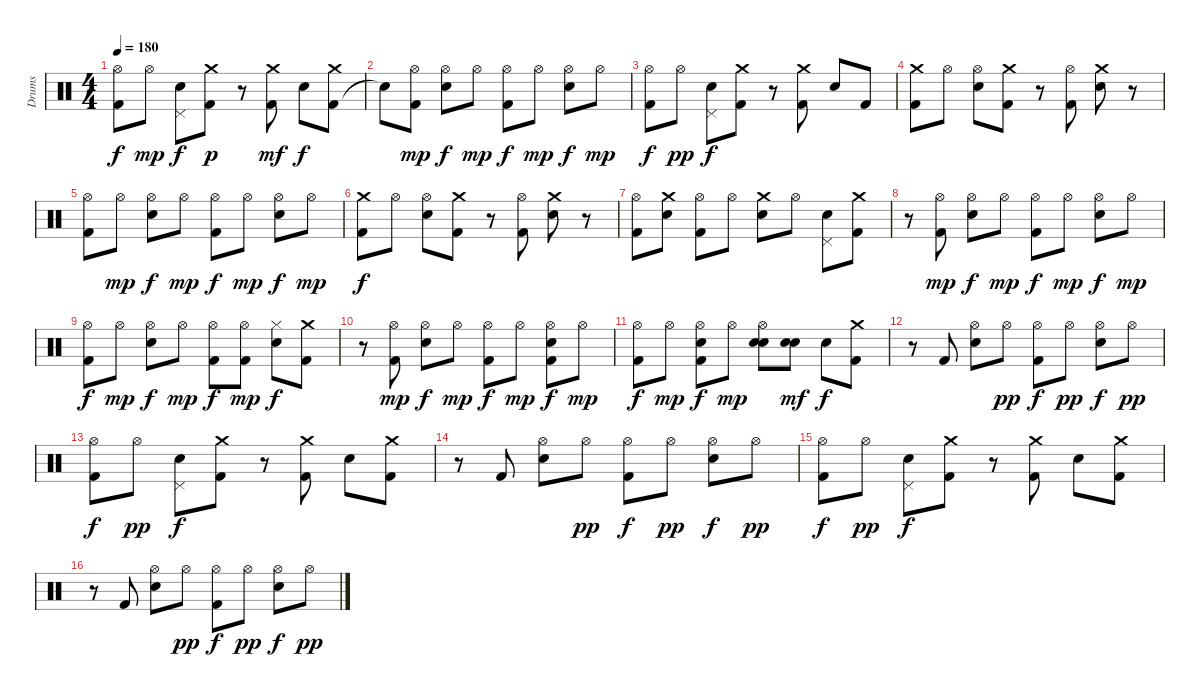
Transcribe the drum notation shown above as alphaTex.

\track ("Drums" "Drums") {instrument percussion}
\staff {score}
\articulation defaults
\ts (4 4)
\tempo 180
\clef neutral
\ks c
("Hi-Hat (open)" "Kick (hit) 2").8{dy f} "Hi-Hat (open)".8{dy mp} ("Pedal Hi-Hat (hit)" "Electric Snare (hit)").8{dy f} ("Crash medium (hit)" "Kick (hit) 2").8{dy p} r.8 ("Crash medium (hit)" "Kick (hit) 2").8{dy mf} "Electric Snare (hit)".8{dy f} ("Kick (hit) 2" "Crash medium (hit)").8 |
"Snare (hit)"{t}.8 ("Hi-Hat (open)" "Kick (hit) 2").8{dy mp} ("Hi-Hat (open)" "Electric Snare (hit)").8{dy f} "Hi-Hat (open)".8{dy mp} ("Hi-Hat (open)" "Kick (hit) 2").8{dy f} "Hi-Hat (open)".8{dy mp} ("Hi-Hat (open)" "Electric Snare (hit)").8{dy f} "Hi-Hat (open)".8{dy mp} |
("Hi-Hat (open)" "Kick (hit) 2").8{dy f} "Hi-Hat (open)".8{dy pp} ("Pedal Hi-Hat (hit)" "Electric Snare (hit)").8{dy f} ("Crash medium (hit)" "Kick (hit) 2").8 r.8 ("Crash medium (hit)" "Kick (hit) 2").8 "Electric Snare (hit)".8 "Kick (hit) 2".8 |
("Crash medium (hit)" "Kick (hit) 2").8 "Hi-Hat (open)".8 ("Hi-Hat (open)" "Electric Snare (hit)").8 ("Kick (hit) 2" "Crash medium (hit)").8 r.8 ("Hi-Hat (open)" "Kick (hit) 2").8 ("Crash medium (hit)" "Electric Snare (hit)").8 r.8 |
("Hi-Hat (open)" "Kick (hit) 2").8 "Hi-Hat (open)".8{dy mp} ("Hi-Hat (open)" "Electric Snare (hit)").8{dy f} "Hi-Hat (open)".8{dy mp} ("Hi-Hat (open)" "Kick (hit) 2").8{dy f} "Hi-Hat (open)".8{dy mp} ("Hi-Hat (open)" "Electric Snare (hit)").8{dy f} "Hi-Hat (open)".8{dy mp} |
("Crash medium (hit)" "Kick (hit) 2").8{dy f} "Hi-Hat (open)".8 ("Hi-Hat (open)" "Electric Snare (hit)").8 ("Kick (hit) 2" "Crash medium (hit)").8 r.8 ("Hi-Hat (open)" "Kick (hit) 2").8 ("Electric Snare (hit)" "Crash medium (hit)").8 r.8 |
("Hi-Hat (open)" "Kick (hit) 2").8 ("Crash medium (hit)" "Electric Snare (hit)").8 ("Hi-Hat (open)" "Kick (hit) 2").8 "Hi-Hat (open)".8 ("Crash medium (hit)" "Electric Snare (hit)").8 "Hi-Hat (open)".8 ("Pedal Hi-Hat (hit)" "Electric Snare (hit)").8 ("Kick (hit) 2" "Crash medium (hit)").8 |
r.8 ("Hi-Hat (open)" "Kick (hit) 2").8{dy mp} ("Hi-Hat (open)" "Electric Snare (hit)").8{dy f} "Hi-Hat (open)".8{dy mp} ("Hi-Hat (open)" "Kick (hit) 2").8{dy f} "Hi-Hat (open)".8{dy mp} ("Hi-Hat (open)" "Electric Snare (hit)").8{dy f} "Hi-Hat (open)".8{dy mp} |
("Hi-Hat (open)" "Kick (hit) 2").8{dy f} "Hi-Hat (open)".8{dy mp} ("Hi-Hat (open)" "Electric Snare (hit)").8{dy f} "Hi-Hat (open)".8{dy mp} ("Hi-Hat (open)" "Kick (hit) 2").8{dy f} ("Hi-Hat (open)" "Kick (hit) 2").8{dy mp} ("Hi-Hat (closed)" "Electric Snare (hit)").8{dy f} ("Kick (hit) 2" "Crash medium (hit)").8 |
r.8 ("Kick (hit) 2" "Hi-Hat (open)").8{dy mp} ("Hi-Hat (open)" "Electric Snare (hit)").8{dy f} "Hi-Hat (open)".8{dy mp} ("Hi-Hat (open)" "Kick (hit) 2").8{dy f} "Hi-Hat (open)".8{dy mp} ("Kick (hit) 2" "Hi-Hat (open)" "Electric Snare (hit)").8{dy f} "Hi-Hat (open)".8{dy mp} |
("Hi-Hat (open)" "Kick (hit) 2").8{dy f} "Hi-Hat (open)".8{dy mp} ("Kick (hit) 2" "Hi-Hat (open)" "Electric Snare (hit)").8{dy f} "Hi-Hat (open)".8{dy mp} ("Electric Snare (hit)" "Hi-Hat (open)" "Electric Snare (hit)").8 ("Electric Snare (hit)" "Electric Snare (hit)").8{dy mf} "Electric Snare (hit)".8{dy f} ("Crash medium (hit)" "Kick (hit) 2").8 |
r.8 "Kick (hit) 2".8 ("Hi-Hat (open)" "Electric Snare (hit)").8 "Hi-Hat (open)".8{dy pp} ("Hi-Hat (open)" "Kick (hit) 2").8{dy f} "Hi-Hat (open)".8{dy pp} ("Hi-Hat (open)" "Electric Snare (hit)").8{dy f} "Hi-Hat (open)".8{dy pp} |
("Hi-Hat (open)" "Kick (hit) 2").8{dy f} "Hi-Hat (open)".8{dy pp} ("Pedal Hi-Hat (hit)" "Electric Snare (hit)").8{dy f} ("Crash medium (hit)" "Kick (hit) 2").8 r.8 ("Crash medium (hit)" "Kick (hit) 2").8 "Electric Snare (hit)".8 ("Crash medium (hit)" "Kick (hit) 2").8 |
r.8 "Kick (hit) 2".8 ("Hi-Hat (open)" "Electric Snare (hit)").8 "Hi-Hat (open)".8{dy pp} ("Hi-Hat (open)" "Kick (hit) 2").8{dy f} "Hi-Hat (open)".8{dy pp} ("Hi-Hat (open)" "Electric Snare (hit)").8{dy f} "Hi-Hat (open)".8{dy pp} |
("Hi-Hat (open)" "Kick (hit) 2").8{dy f} "Hi-Hat (open)".8{dy pp} ("Pedal Hi-Hat (hit)" "Electric Snare (hit)").8{dy f} ("Crash medium (hit)" "Kick (hit) 2").8 r.8 ("Crash medium (hit)" "Kick (hit) 2").8 "Electric Snare (hit)".8 ("Crash medium (hit)" "Kick (hit) 2").8 |
r.8 "Kick (hit) 2".8 ("Hi-Hat (open)" "Electric Snare (hit)").8 "Hi-Hat (open)".8{dy pp} ("Hi-Hat (open)" "Kick (hit) 2").8{dy f} "Hi-Hat (open)".8{dy pp} ("Hi-Hat (open)" "Electric Snare (hit)").8{dy f} "Hi-Hat (open)".8{dy pp}
